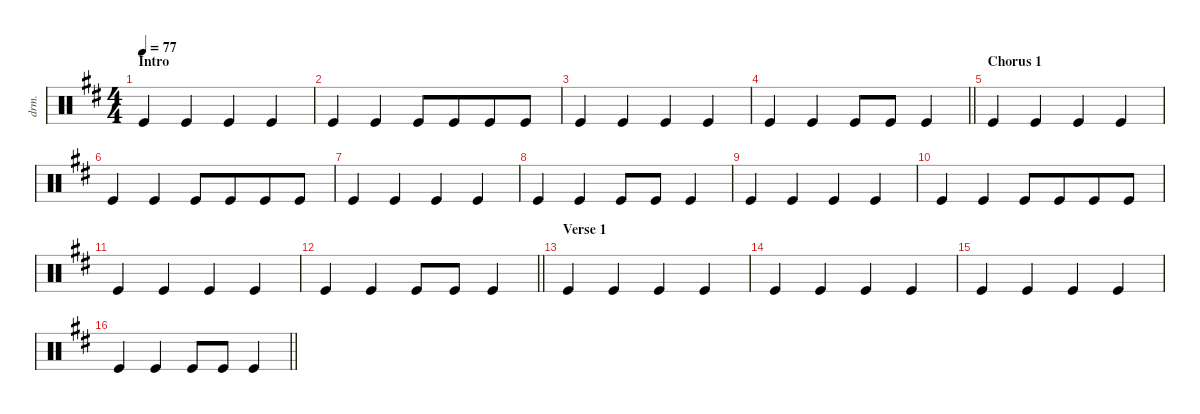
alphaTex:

\defaultSystemsLayout 4
\hideDynamics
\bracketExtendMode nobrackets
\otherSystemsTrackNameOrientation horizontal
\track ("Drums" "drm.") {defaultSystemsLayout 8 instrument percussion}
\staff {score}
\articulation defaults
\ts (4 4)
\beaming (8 4 4)
\section ("" "Intro")
\tempo 77
\clef neutral
\ks bminor "Kick (hit)"{acc forcenatural}.4{dy mf} "Kick (hit)"{acc forcenatural}.4 "Kick (hit)"{acc forcenatural}.4 "Kick (hit)"{acc forcenatural}.4
|
"Kick (hit)"{acc forcenatural}.4 "Kick (hit)"{acc forcenatural}.4 "Kick (hit)"{acc forcenatural}.8 "Kick (hit)"{acc forcenatural}.8 "Kick (hit)"{acc forcenatural}.8 "Kick (hit)"{acc forcenatural}.8 |
"Kick (hit)"{acc forcenatural}.4 "Kick (hit)"{acc forcenatural}.4 "Kick (hit)"{acc forcenatural}.4 "Kick (hit)"{acc forcenatural}.4 |
\barLineRight lightlight "Kick (hit)"{acc forcenatural}.4 "Kick (hit)"{acc forcenatural}.4 "Kick (hit)"{acc forcenatural}.8 "Kick (hit)"{acc forcenatural}.8 "Kick (hit)"{acc forcenatural}.4
|
\section ("" "Chorus 1")
"Kick (hit)"{acc forcenatural}.4 "Kick (hit)"{acc forcenatural}.4 "Kick (hit)"{acc forcenatural}.4 "Kick (hit)"{acc forcenatural}.4 |
"Kick (hit)"{acc forcenatural}.4 "Kick (hit)"{acc forcenatural}.4 "Kick (hit)"{acc forcenatural}.8 "Kick (hit)"{acc forcenatural}.8 "Kick (hit)"{acc forcenatural}.8 "Kick (hit)"{acc forcenatural}.8 |
"Kick (hit)"{acc forcenatural}.4 "Kick (hit)"{acc forcenatural}.4 "Kick (hit)"{acc forcenatural}.4 "Kick (hit)"{acc forcenatural}.4 |
"Kick (hit)"{acc forcenatural}.4 "Kick (hit)"{acc forcenatural}.4 "Kick (hit)"{acc forcenatural}.8 "Kick (hit)"{acc forcenatural}.8 "Kick (hit)"{acc forcenatural}.4 |
"Kick (hit)"{acc forcenatural}.4 "Kick (hit)"{acc forcenatural}.4 "Kick (hit)"{acc forcenatural}.4 "Kick (hit)"{acc forcenatural}.4 |
"Kick (hit)"{acc forcenatural}.4 "Kick (hit)"{acc forcenatural}.4 "Kick (hit)"{acc forcenatural}.8 "Kick (hit)"{acc forcenatural}.8 "Kick (hit)"{acc forcenatural}.8 "Kick (hit)"{acc forcenatural}.8 |
"Kick (hit)"{acc forcenatural}.4 "Kick (hit)"{acc forcenatural}.4 "Kick (hit)"{acc forcenatural}.4 "Kick (hit)"{acc forcenatural}.4 |
\barLineRight lightlight "Kick (hit)"{acc forcenatural}.4 "Kick (hit)"{acc forcenatural}.4 "Kick (hit)"{acc forcenatural}.8 "Kick (hit)"{acc forcenatural}.8 "Kick (hit)"{acc forcenatural}.4
|
\section ("" "Verse 1")
"Kick (hit)"{acc forcenatural}.4 "Kick (hit)"{acc forcenatural}.4 "Kick (hit)"{acc forcenatural}.4 "Kick (hit)"{acc forcenatural}.4 |
"Kick (hit)"{acc forcenatural}.4 "Kick (hit)"{acc forcenatural}.4 "Kick (hit)"{acc forcenatural}.4 "Kick (hit)"{acc forcenatural}.4 |
"Kick (hit)"{acc forcenatural}.4 "Kick (hit)"{acc forcenatural}.4 "Kick (hit)"{acc forcenatural}.4 "Kick (hit)"{acc forcenatural}.4 |
\barLineRight lightlight "Kick (hit)"{acc forcenatural}.4 "Kick (hit)"{acc forcenatural}.4 "Kick (hit)"{acc forcenatural}.8 "Kick (hit)"{acc forcenatural}.8 "Kick (hit)"{acc forcenatural}.4
